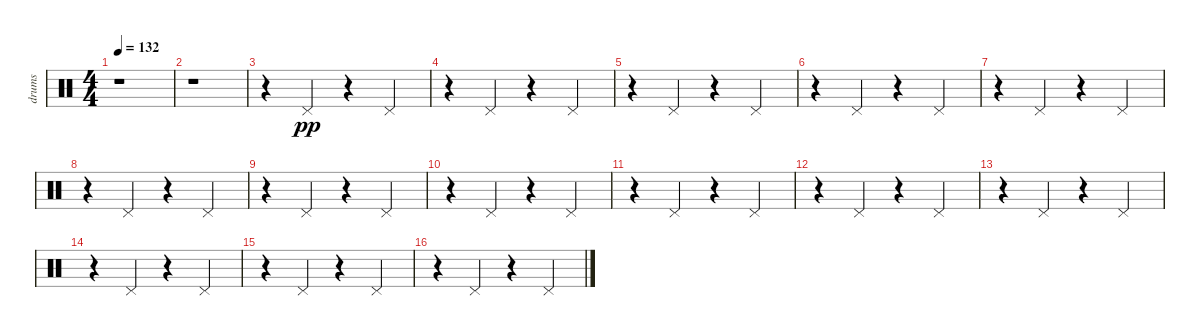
\track ("drums" "drums") {instrument percussion}
\staff {score}
\articulation defaults
\ts (4 4)
\tempo 132
\clef neutral
\ks c
r.1{dy pp} |
r.1 |
r.4 "Pedal Hi-Hat (hit)".4 r.4 "Pedal Hi-Hat (hit)".4 |
r.4 "Pedal Hi-Hat (hit)".4 r.4 "Pedal Hi-Hat (hit)".4 |
r.4 "Pedal Hi-Hat (hit)".4 r.4 "Pedal Hi-Hat (hit)".4 |
r.4 "Pedal Hi-Hat (hit)".4 r.4 "Pedal Hi-Hat (hit)".4 |
r.4 "Pedal Hi-Hat (hit)".4 r.4 "Pedal Hi-Hat (hit)".4 |
r.4 "Pedal Hi-Hat (hit)".4 r.4 "Pedal Hi-Hat (hit)".4 |
r.4 "Pedal Hi-Hat (hit)".4 r.4 "Pedal Hi-Hat (hit)".4 |
r.4 "Pedal Hi-Hat (hit)".4 r.4 "Pedal Hi-Hat (hit)".4 |
r.4 "Pedal Hi-Hat (hit)".4 r.4 "Pedal Hi-Hat (hit)".4 |
r.4 "Pedal Hi-Hat (hit)".4 r.4 "Pedal Hi-Hat (hit)".4 |
r.4 "Pedal Hi-Hat (hit)".4 r.4 "Pedal Hi-Hat (hit)".4 |
r.4 "Pedal Hi-Hat (hit)".4 r.4 "Pedal Hi-Hat (hit)".4 |
r.4 "Pedal Hi-Hat (hit)".4 r.4 "Pedal Hi-Hat (hit)".4 |
r.4 "Pedal Hi-Hat (hit)".4 r.4 "Pedal Hi-Hat (hit)".4
